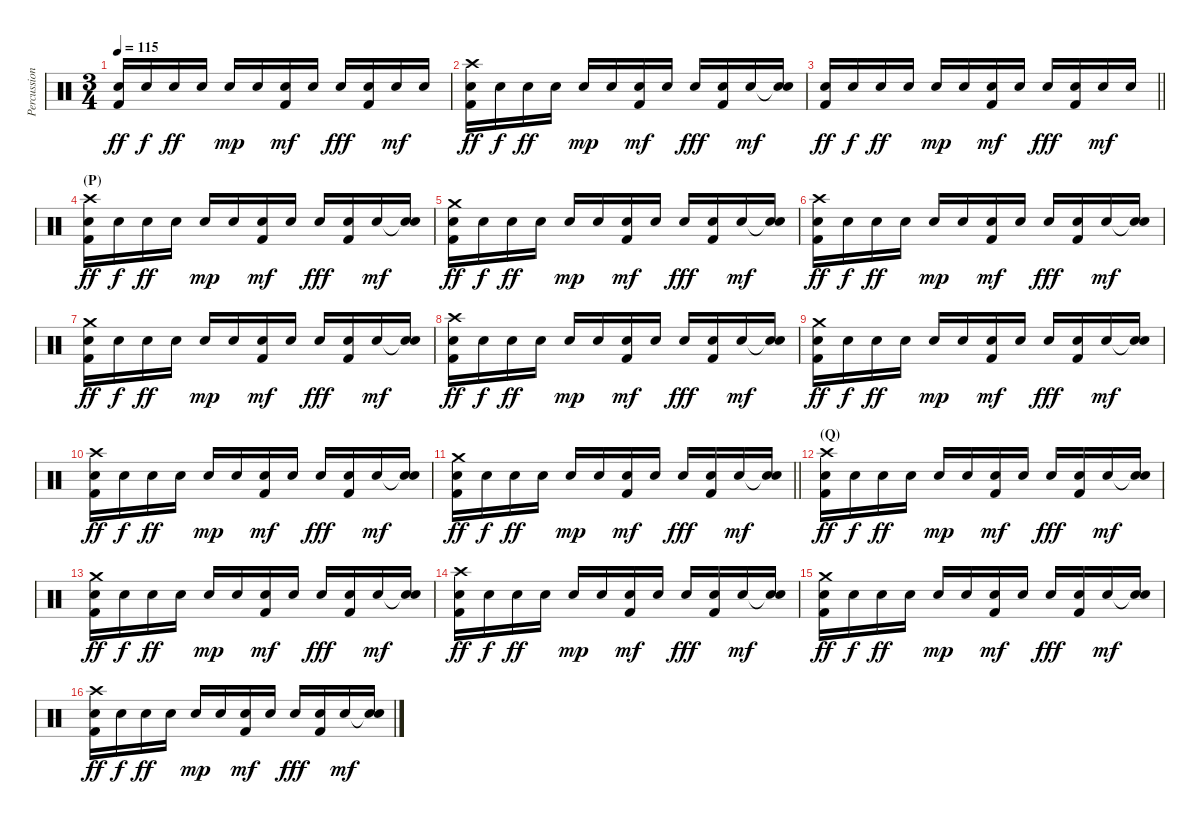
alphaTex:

\track ("Percussion 1" "Percussion") {instrument percussion}
\staff {score}
\articulation defaults
\ts (3 4)
\tempo 115
\clef neutral
\ks c
("Snare (hit) 2" "Kick (hit) 2").16{dy ff} "Snare (hit) 2".16{dy f} "Snare (hit) 2".16{dy ff} "Snare (hit) 2".16 "Snare (hit) 2".16{dy mp} "Snare (hit) 2".16 ("Snare (hit) 2" "Kick (hit) 2").16{dy mf} "Snare (hit) 2".16 "Snare (hit) 2".16{dy fff} ("Snare (hit) 2" "Kick (hit) 2").16 "Snare (hit) 2".16{dy mf} "Snare (hit) 2".16 |
("Crash high (hit)" "Snare (hit) 2" "Kick (hit) 2").16{dy ff} "Snare (hit) 2".16{dy f} "Snare (hit) 2".16{dy ff} "Snare (hit) 2".16 "Snare (hit) 2".16{dy mp} "Snare (hit) 2".16 ("Snare (hit) 2" "Kick (hit) 2").16{dy mf} "Snare (hit) 2".16 "Snare (hit) 2".16{dy fff} ("Snare (hit) 2" "Kick (hit) 2").16 "Snare (hit) 2".16{dy mf} ("Snare (hit)"{t} "Snare (hit) 2").16 |
\barLineRight lightlight
("Snare (hit) 2" "Kick (hit) 2").16{dy ff} "Snare (hit) 2".16{dy f} "Snare (hit) 2".16{dy ff} "Snare (hit) 2".16 "Snare (hit) 2".16{dy mp} "Snare (hit) 2".16 ("Snare (hit) 2" "Kick (hit) 2").16{dy mf} "Snare (hit) 2".16 "Snare (hit) 2".16{dy fff} ("Snare (hit) 2" "Kick (hit) 2").16 "Snare (hit) 2".16{dy mf} "Snare (hit) 2".16 |
\section ("" "(P)")
("Crash high (hit)" "Snare (hit) 2" "Kick (hit) 2").16{dy ff} "Snare (hit) 2".16{dy f} "Snare (hit) 2".16{dy ff} "Snare (hit) 2".16 "Snare (hit) 2".16{dy mp} "Snare (hit) 2".16 ("Snare (hit) 2" "Kick (hit) 2").16{dy mf} "Snare (hit) 2".16 "Snare (hit) 2".16{dy fff} ("Snare (hit) 2" "Kick (hit) 2").16 "Snare (hit) 2".16{dy mf} ("Snare (hit)"{t} "Snare (hit) 2").16 |
("Crash medium (hit)" "Snare (hit) 2" "Kick (hit) 2").16{dy ff} "Snare (hit) 2".16{dy f} "Snare (hit) 2".16{dy ff} "Snare (hit) 2".16 "Snare (hit) 2".16{dy mp} "Snare (hit) 2".16 ("Snare (hit) 2" "Kick (hit) 2").16{dy mf} "Snare (hit) 2".16 "Snare (hit) 2".16{dy fff} ("Snare (hit) 2" "Kick (hit) 2").16 "Snare (hit) 2".16{dy mf} ("Snare (hit)"{t} "Snare (hit) 2").16 |
("Crash high (hit)" "Snare (hit) 2" "Kick (hit) 2").16{dy ff} "Snare (hit) 2".16{dy f} "Snare (hit) 2".16{dy ff} "Snare (hit) 2".16 "Snare (hit) 2".16{dy mp} "Snare (hit) 2".16 ("Snare (hit) 2" "Kick (hit) 2").16{dy mf} "Snare (hit) 2".16 "Snare (hit) 2".16{dy fff} ("Snare (hit) 2" "Kick (hit) 2").16 "Snare (hit) 2".16{dy mf} ("Snare (hit)"{t} "Snare (hit) 2").16 |
("Crash medium (hit)" "Snare (hit) 2" "Kick (hit) 2").16{dy ff} "Snare (hit) 2".16{dy f} "Snare (hit) 2".16{dy ff} "Snare (hit) 2".16 "Snare (hit) 2".16{dy mp} "Snare (hit) 2".16 ("Snare (hit) 2" "Kick (hit) 2").16{dy mf} "Snare (hit) 2".16 "Snare (hit) 2".16{dy fff} ("Snare (hit) 2" "Kick (hit) 2").16 "Snare (hit) 2".16{dy mf} ("Snare (hit)"{t} "Snare (hit) 2").16 |
("Crash high (hit)" "Snare (hit) 2" "Kick (hit) 2").16{dy ff} "Snare (hit) 2".16{dy f} "Snare (hit) 2".16{dy ff} "Snare (hit) 2".16 "Snare (hit) 2".16{dy mp} "Snare (hit) 2".16 ("Snare (hit) 2" "Kick (hit) 2").16{dy mf} "Snare (hit) 2".16 "Snare (hit) 2".16{dy fff} ("Snare (hit) 2" "Kick (hit) 2").16 "Snare (hit) 2".16{dy mf} ("Snare (hit)"{t} "Snare (hit) 2").16 |
("Crash medium (hit)" "Snare (hit) 2" "Kick (hit) 2").16{dy ff} "Snare (hit) 2".16{dy f} "Snare (hit) 2".16{dy ff} "Snare (hit) 2".16 "Snare (hit) 2".16{dy mp} "Snare (hit) 2".16 ("Snare (hit) 2" "Kick (hit) 2").16{dy mf} "Snare (hit) 2".16 "Snare (hit) 2".16{dy fff} ("Snare (hit) 2" "Kick (hit) 2").16 "Snare (hit) 2".16{dy mf} ("Snare (hit)"{t} "Snare (hit) 2").16 |
("Crash high (hit)" "Snare (hit) 2" "Kick (hit) 2").16{dy ff} "Snare (hit) 2".16{dy f} "Snare (hit) 2".16{dy ff} "Snare (hit) 2".16 "Snare (hit) 2".16{dy mp} "Snare (hit) 2".16 ("Snare (hit) 2" "Kick (hit) 2").16{dy mf} "Snare (hit) 2".16 "Snare (hit) 2".16{dy fff} ("Snare (hit) 2" "Kick (hit) 2").16 "Snare (hit) 2".16{dy mf} ("Snare (hit)"{t} "Snare (hit) 2").16 |
\barLineRight lightlight
("Crash medium (hit)" "Snare (hit) 2" "Kick (hit) 2").16{dy ff} "Snare (hit) 2".16{dy f} "Snare (hit) 2".16{dy ff} "Snare (hit) 2".16 "Snare (hit) 2".16{dy mp} "Snare (hit) 2".16 ("Snare (hit) 2" "Kick (hit) 2").16{dy mf} "Snare (hit) 2".16 "Snare (hit) 2".16{dy fff} ("Snare (hit) 2" "Kick (hit) 2").16 "Snare (hit) 2".16{dy mf} ("Snare (hit)"{t} "Snare (hit) 2").16 |
\section ("" "(Q)")
("Crash high (hit)" "Snare (hit) 2" "Kick (hit) 2").16{dy ff} "Snare (hit) 2".16{dy f} "Snare (hit) 2".16{dy ff} "Snare (hit) 2".16 "Snare (hit) 2".16{dy mp} "Snare (hit) 2".16 ("Snare (hit) 2" "Kick (hit) 2").16{dy mf} "Snare (hit) 2".16 "Snare (hit) 2".16{dy fff} ("Snare (hit) 2" "Kick (hit) 2").16 "Snare (hit) 2".16{dy mf} ("Snare (hit)"{t} "Snare (hit) 2").16 |
("Crash medium (hit)" "Snare (hit) 2" "Kick (hit) 2").16{dy ff} "Snare (hit) 2".16{dy f} "Snare (hit) 2".16{dy ff} "Snare (hit) 2".16 "Snare (hit) 2".16{dy mp} "Snare (hit) 2".16 ("Snare (hit) 2" "Kick (hit) 2").16{dy mf} "Snare (hit) 2".16 "Snare (hit) 2".16{dy fff} ("Snare (hit) 2" "Kick (hit) 2").16 "Snare (hit) 2".16{dy mf} ("Snare (hit)"{t} "Snare (hit) 2").16 |
("Crash high (hit)" "Snare (hit) 2" "Kick (hit) 2").16{dy ff} "Snare (hit) 2".16{dy f} "Snare (hit) 2".16{dy ff} "Snare (hit) 2".16 "Snare (hit) 2".16{dy mp volume 16} "Snare (hit) 2".16 ("Snare (hit) 2" "Kick (hit) 2").16{dy mf} "Snare (hit) 2".16 "Snare (hit) 2".16{dy fff} ("Snare (hit) 2" "Kick (hit) 2").16 "Snare (hit) 2".16{dy mf} ("Snare (hit)"{t} "Snare (hit) 2").16 |
("Crash medium (hit)" "Snare (hit) 2" "Kick (hit) 2").16{dy ff} "Snare (hit) 2".16{dy f} "Snare (hit) 2".16{dy ff} "Snare (hit) 2".16 "Snare (hit) 2".16{dy mp} "Snare (hit) 2".16 ("Snare (hit) 2" "Kick (hit) 2").16{dy mf} "Snare (hit) 2".16 "Snare (hit) 2".16{dy fff} ("Snare (hit) 2" "Kick (hit) 2").16 "Snare (hit) 2".16{dy mf} ("Snare (hit)"{t} "Snare (hit) 2").16 |
("Crash high (hit)" "Snare (hit) 2" "Kick (hit) 2").16{dy ff} "Snare (hit) 2".16{dy f} "Snare (hit) 2".16{dy ff} "Snare (hit) 2".16 "Snare (hit) 2".16{dy mp} "Snare (hit) 2".16 ("Snare (hit) 2" "Kick (hit) 2").16{dy mf} "Snare (hit) 2".16 "Snare (hit) 2".16{dy fff} ("Snare (hit) 2" "Kick (hit) 2").16 "Snare (hit) 2".16{dy mf} ("Snare (hit)"{t} "Snare (hit) 2").16
